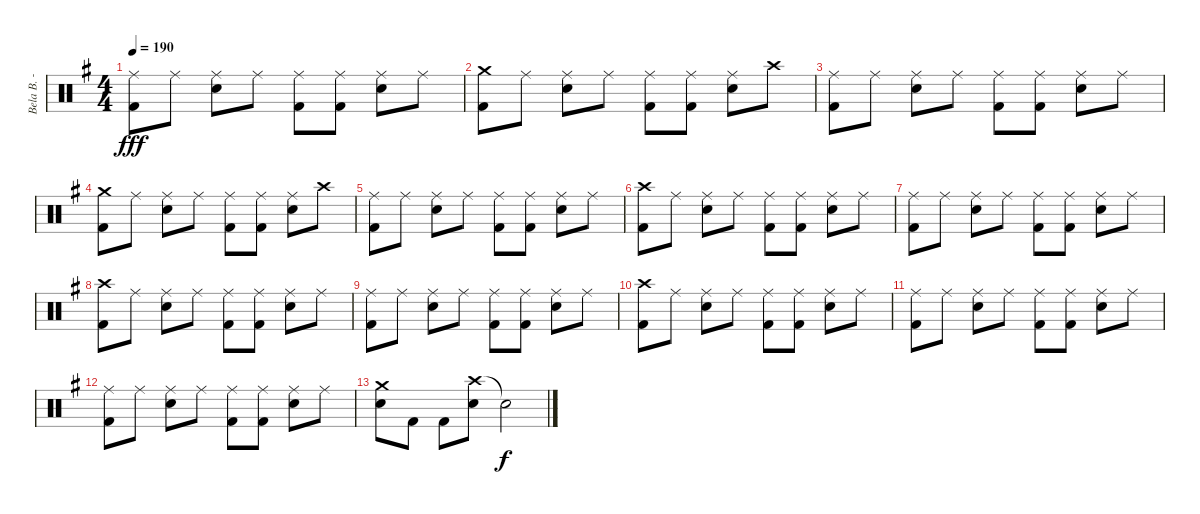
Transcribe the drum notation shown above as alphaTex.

\track ("Bela B. - Drums" "Bela B. - ") {instrument percussion}
\staff {score}
\articulation defaults
\ts (4 4)
\tempo 190
\clef neutral
\ks g
("Ride (middle)" "Kick (hit) 2").8{dy fff} "Ride (middle)".8 ("Ride (middle)" "Snare (hit) 2").8 "Ride (middle)".8 ("Ride (middle)" "Kick (hit) 2").8 ("Ride (middle)" "Kick (hit) 2").8 ("Ride (middle)" "Snare (hit) 2").8 "Ride (middle)".8 |
("Crash medium (hit)" "Kick (hit) 2").8 "Ride (middle)".8 ("Ride (middle)" "Snare (hit) 2").8 "Ride (middle)".8 ("Ride (middle)" "Kick (hit) 2").8 ("Ride (middle)" "Kick (hit) 2").8 ("Ride (middle)" "Snare (hit) 2").8 "Crash high (hit)".8 |
("Ride (middle)" "Kick (hit) 2").8 "Ride (middle)".8 ("Ride (middle)" "Snare (hit) 2").8 "Ride (middle)".8 ("Ride (middle)" "Kick (hit) 2").8 ("Ride (middle)" "Kick (hit) 2").8 ("Ride (middle)" "Snare (hit) 2").8 "Ride (middle)".8 |
("Crash medium (hit)" "Kick (hit) 2").8 "Ride (middle)".8 ("Ride (middle)" "Snare (hit) 2").8 "Ride (middle)".8 ("Ride (middle)" "Kick (hit) 2").8 ("Ride (middle)" "Kick (hit) 2").8 ("Ride (middle)" "Snare (hit) 2").8 "Crash high (hit)".8 |
("Ride (middle)" "Kick (hit) 2").8 "Ride (middle)".8 ("Ride (middle)" "Snare (hit) 2").8 "Ride (middle)".8 ("Ride (middle)" "Kick (hit) 2").8 ("Ride (middle)" "Kick (hit) 2").8 ("Ride (middle)" "Snare (hit) 2").8 "Ride (middle)".8 |
("Crash high (hit)" "Kick (hit) 2").8 "Ride (middle)".8 ("Ride (middle)" "Snare (hit) 2").8 "Ride (middle)".8 ("Ride (middle)" "Kick (hit) 2").8 ("Ride (middle)" "Kick (hit) 2").8 ("Ride (middle)" "Snare (hit) 2").8 "Ride (middle)".8 |
("Ride (middle)" "Kick (hit) 2").8 "Ride (middle)".8 ("Ride (middle)" "Snare (hit) 2").8 "Ride (middle)".8 ("Ride (middle)" "Kick (hit) 2").8 ("Ride (middle)" "Kick (hit) 2").8 ("Ride (middle)" "Snare (hit) 2").8 "Ride (middle)".8 |
("Crash high (hit)" "Kick (hit) 2").8 "Ride (middle)".8 ("Ride (middle)" "Snare (hit) 2").8 "Ride (middle)".8 ("Ride (middle)" "Kick (hit) 2").8 ("Ride (middle)" "Kick (hit) 2").8 ("Ride (middle)" "Snare (hit) 2").8 "Ride (middle)".8 |
("Ride (middle)" "Kick (hit) 2").8 "Ride (middle)".8 ("Ride (middle)" "Snare (hit) 2").8 "Ride (middle)".8 ("Ride (middle)" "Kick (hit) 2").8 ("Ride (middle)" "Kick (hit) 2").8 ("Ride (middle)" "Snare (hit) 2").8 "Ride (middle)".8 |
("Crash high (hit)" "Kick (hit) 2").8 "Ride (middle)".8 ("Ride (middle)" "Snare (hit) 2").8 "Ride (middle)".8 ("Ride (middle)" "Kick (hit) 2").8 ("Ride (middle)" "Kick (hit) 2").8 ("Ride (middle)" "Snare (hit) 2").8 "Ride (middle)".8 |
("Ride (middle)" "Kick (hit) 2").8 "Ride (middle)".8 ("Ride (middle)" "Snare (hit) 2").8 "Ride (middle)".8 ("Ride (middle)" "Kick (hit) 2").8 ("Ride (middle)" "Kick (hit) 2").8 ("Ride (middle)" "Snare (hit) 2").8 "Ride (middle)".8 |
("Ride (middle)" "Kick (hit) 2").8 "Ride (middle)".8 ("Ride (middle)" "Snare (hit) 2").8 "Ride (middle)".8 ("Ride (middle)" "Kick (hit) 2").8 ("Ride (middle)" "Kick (hit) 2").8 ("Ride (middle)" "Snare (hit) 2").8 "Ride (middle)".8 |
("Crash medium (hit)" "Snare (hit) 2").8 "Kick (hit) 2".8 "Kick (hit) 2".8 ("Crash high (hit)" "Snare (hit) 2").8 "Snare (hit)"{t}.2{dy f}
